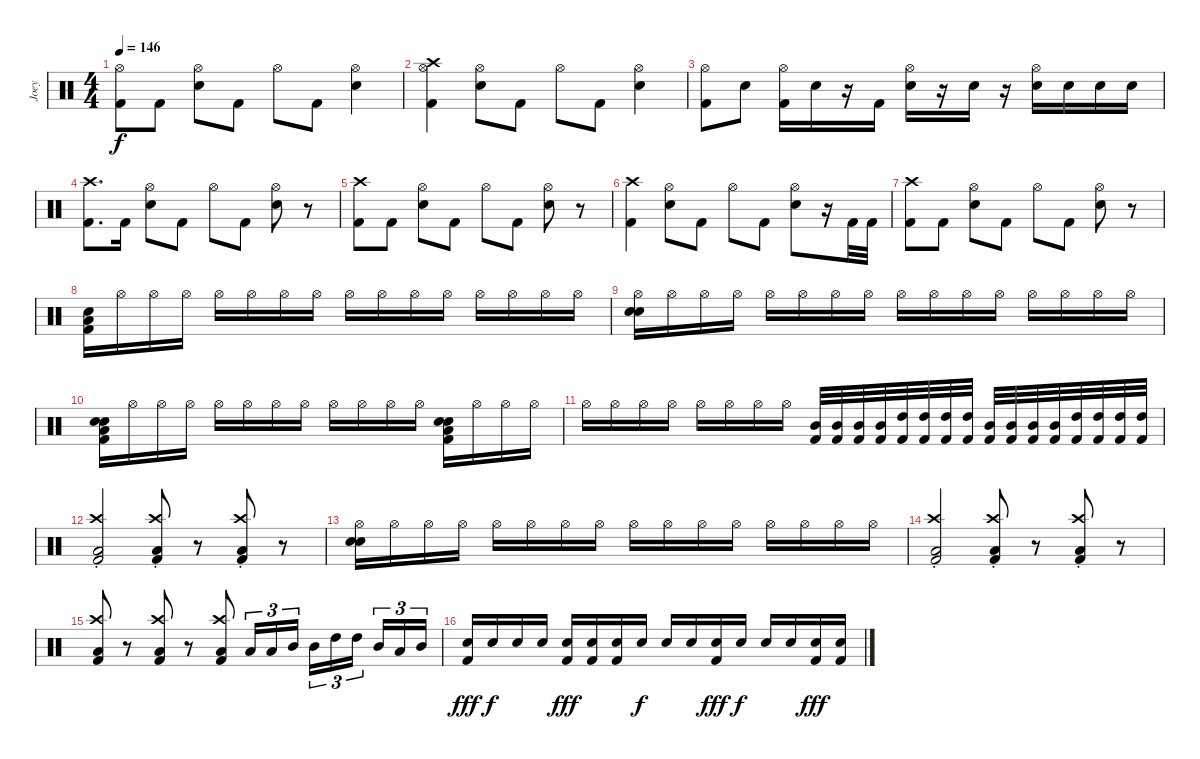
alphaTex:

\track ("Joey" "Joey") {instrument percussion}
\staff {score}
\articulation defaults
\ts (4 4)
\tempo 146
\clef neutral
\ks c
("Hi-Hat (open)" "Kick (hit) 2").8{dy f} "Kick (hit) 2".8 ("Hi-Hat (open)" "Electric Snare (hit)").8 "Kick (hit) 2".8 "Hi-Hat (open)".8 "Kick (hit) 2".8 ("Hi-Hat (open)" "Electric Snare (hit)").4 |
("Hi-Hat (open)" "Crash high (hit)" "Kick (hit) 2").4 ("Hi-Hat (open)" "Electric Snare (hit)").8 "Kick (hit) 2".8 "Hi-Hat (open)".8 "Kick (hit) 2".8 ("Hi-Hat (open)" "Electric Snare (hit)").4 |
("Hi-Hat (open)" "Kick (hit) 2").8 "Electric Snare (hit)".8 ("Hi-Hat (open)" "Kick (hit) 2").16 "Electric Snare (hit)".16 r.16 "Kick (hit) 2".16 ("Hi-Hat (open)" "Electric Snare (hit)").16 r.16 "Electric Snare (hit)".16 r.16 ("Hi-Hat (open)" "Electric Snare (hit)").16 "Electric Snare (hit)".16 "Electric Snare (hit)".16 "Electric Snare (hit)".16 |
("Crash high (hit)" "Kick (hit) 2").8{d} "Kick (hit) 2".16 ("Hi-Hat (open)" "Electric Snare (hit)").8 "Kick (hit) 2".8 "Hi-Hat (open)".8 "Kick (hit) 2".8 ("Hi-Hat (open)" "Electric Snare (hit)").8 r.8 |
("Crash high (hit)" "Kick (hit) 2").8 "Kick (hit) 2".8 ("Hi-Hat (open)" "Electric Snare (hit)").8 "Kick (hit) 2".8 "Hi-Hat (open)".8 "Kick (hit) 2".8 ("Hi-Hat (open)" "Electric Snare (hit)").8 r.8 |
("Crash high (hit)" "Kick (hit) 2").4 ("Hi-Hat (open)" "Electric Snare (hit)").8 "Kick (hit) 2".8 "Hi-Hat (open)".8 "Kick (hit) 2".8 ("Hi-Hat (open)" "Electric Snare (hit)").8 r.16 "Kick (hit) 2".32 "Kick (hit) 2".32 |
("Crash high (hit)" "Kick (hit) 2").8 "Kick (hit) 2".8 ("Hi-Hat (open)" "Electric Snare (hit)").8 "Kick (hit) 2".8 "Hi-Hat (open)".8 "Kick (hit) 2".8 ("Hi-Hat (open)" "Electric Snare (hit)").8 r.8 |
("Snare (hit)" "Low Floor Tom (hit)" "Kick (hit) 2").16 "Hi-Hat (open)".16 "Hi-Hat (open)".16 "Hi-Hat (open)".16 "Hi-Hat (open)".16 "Hi-Hat (open)".16 "Hi-Hat (open)".16 "Hi-Hat (open)".16 "Hi-Hat (open)".16 "Hi-Hat (open)".16 "Hi-Hat (open)".16 "Hi-Hat (open)".16 "Hi-Hat (open)".16 "Hi-Hat (open)".16 "Hi-Hat (open)".16 "Hi-Hat (open)".16 |
("Hi-Hat (open)" "Snare (hit)" "Snare (hit)").16 "Hi-Hat (open)".16 "Hi-Hat (open)".16 "Hi-Hat (open)".16 "Hi-Hat (open)".16 "Hi-Hat (open)".16 "Hi-Hat (open)".16 "Hi-Hat (open)".16 "Hi-Hat (open)".16 "Hi-Hat (open)".16 "Hi-Hat (open)".16 "Hi-Hat (open)".16 "Hi-Hat (open)".16 "Hi-Hat (open)".16 "Hi-Hat (open)".16 "Hi-Hat (open)".16 |
("Snare (hit)" "Electric Snare (hit)" "Low Floor Tom (hit)" "Kick (hit) 2").16 "Hi-Hat (open)".16 "Hi-Hat (open)".16 "Hi-Hat (open)".16 "Hi-Hat (open)".16 "Hi-Hat (open)".16 "Hi-Hat (open)".16 "Hi-Hat (open)".16 "Hi-Hat (open)".16 "Hi-Hat (open)".16 "Hi-Hat (open)".16 "Hi-Hat (open)".16 ("Snare (hit)" "Electric Snare (hit)" "Low Floor Tom (hit)" "Kick (hit) 2").16 "Hi-Hat (open)".16 "Hi-Hat (open)".16 "Hi-Hat (open)".16 |
"Hi-Hat (open)".16 "Hi-Hat (open)".16 "Hi-Hat (open)".16 "Hi-Hat (open)".16 "Hi-Hat (open)".16 "Hi-Hat (open)".16 "Hi-Hat (open)".16 "Hi-Hat (open)".16 ("Mid Tom (hit)" "Kick (hit) 2").32 ("Mid Tom (hit)" "Kick (hit) 2").32 ("Mid Tom (hit)" "Kick (hit) 2").32 ("Mid Tom (hit)" "Kick (hit) 2").32 ("High Tom (hit)" "Kick (hit) 2").32 ("High Tom (hit)" "Kick (hit) 2").32 ("High Tom (hit)" "Kick (hit) 2").32 ("High Tom (hit)" "Kick (hit) 2").32 ("Mid Tom (hit)" "Kick (hit) 2").32 ("Mid Tom (hit)" "Kick (hit) 2").32 ("Mid Tom (hit)" "Kick (hit) 2").32 ("Mid Tom (hit)" "Kick (hit) 2").32 ("High Tom (hit)" "Kick (hit) 2").32 ("High Tom (hit)" "Kick (hit) 2").32 ("High Tom (hit)" "Kick (hit) 2").32 ("High Tom (hit)" "Kick (hit) 2").32 |
("Crash high (hit)"{st} "Low Floor Tom (hit)" "Kick (hit) 2").2 ("Crash high (hit)"{st} "Kick (hit) 2" "Low Floor Tom (hit)").8 r.8 ("Crash high (hit)"{st} "Kick (hit) 2" "Low Floor Tom (hit)").8 r.8 |
("Hi-Hat (open)" "Snare (hit)" "Snare (hit)").16 "Hi-Hat (open)".16 "Hi-Hat (open)".16 "Hi-Hat (open)".16 "Hi-Hat (open)".16 "Hi-Hat (open)".16 "Hi-Hat (open)".16 "Hi-Hat (open)".16 "Hi-Hat (open)".16 "Hi-Hat (open)".16 "Hi-Hat (open)".16 "Hi-Hat (open)".16 "Hi-Hat (open)".16 "Hi-Hat (open)".16 "Hi-Hat (open)".16 "Hi-Hat (open)".16 |
("Crash high (hit)"{st} "Low Floor Tom (hit)" "Kick (hit) 2").2 ("Crash high (hit)"{st} "Kick (hit) 2" "Low Floor Tom (hit)").8 r.8 ("Crash high (hit)"{st} "Kick (hit) 2" "Low Floor Tom (hit)").8 r.8 |
("Crash high (hit)" "Kick (hit) 2" "Low Floor Tom (hit)").8 r.8 ("Crash high (hit)" "Kick (hit) 2" "Low Floor Tom (hit)").8 r.8 ("Crash high (hit)" "Kick (hit) 2" "Low Floor Tom (hit)").8 "Low Tom (hit)".16{tu (3 2)} "Low Tom (hit)".16{tu (3 2)} "Mid Tom (hit)".16{tu (3 2)} "Mid Tom (hit)".16{tu (3 2)} "High Tom (hit)".16{tu (3 2)} "High Tom (hit)".16{tu (3 2) beam splitsecondary} "Mid Tom (hit)".16{tu (3 2)} "Low Tom (hit)".16{tu (3 2)} "Mid Tom (hit)".16{tu (3 2)} |
("Snare (hit)" "Kick (hit) 2").16{dy fff} "Snare (hit)".16{dy f} "Snare (hit)".16 "Snare (hit)".16 ("Snare (hit)" "Kick (hit) 2").16{dy fff} ("Snare (hit)" "Kick (hit) 2").16 ("Snare (hit)" "Kick (hit) 2").16 "Snare (hit)".16{dy f} "Snare (hit)".16 "Snare (hit)".16 ("Snare (hit)" "Kick (hit) 2").16{dy fff} "Snare (hit)".16{dy f} "Snare (hit)".16 "Snare (hit)".16 ("Snare (hit)" "Kick (hit) 2").16{dy fff} ("Snare (hit)" "Kick (hit) 2").16
